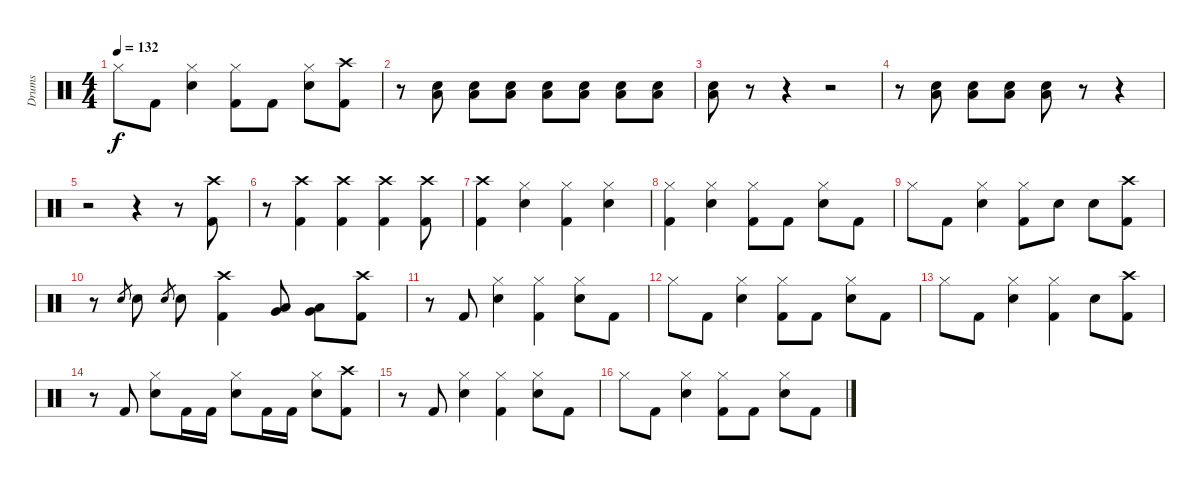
\track ("Drums" "Drums") {instrument percussion}
\staff {score}
\articulation defaults
\ts (4 4)
\tempo 132
\clef neutral
\ks c "Hi-Hat (closed)".8{dy f} "Kick (hit) 2".8
("Hi-Hat (closed)" "Electric Snare (hit)").4 ("Hi-Hat (closed)" "Kick (hit) 2").8 "Kick (hit) 2".8 ("Hi-Hat (closed)" "Electric Snare (hit)").8 ("Crash high (hit)" "Kick (hit) 2").8 |
r.8 ("Electric Snare (hit)" "Low Tom (hit)").8 ("Electric Snare (hit)" "Low Tom (hit)").8 ("Electric Snare (hit)" "Low Tom (hit)").8 ("Electric Snare (hit)" "Low Tom (hit)").8 ("Electric Snare (hit)" "Low Tom (hit)").8 ("Electric Snare (hit)" "Low Tom (hit)").8 ("Electric Snare (hit)" "Low Tom (hit)").8 |
("Electric Snare (hit)" "Low Tom (hit)").8 r.8 r.4 r.2 |
r.8 ("Electric Snare (hit)" "Low Tom (hit)").8 ("Electric Snare (hit)" "Low Tom (hit)").8 ("Electric Snare (hit)" "Low Tom (hit)").8 ("Electric Snare (hit)" "Low Tom (hit)").8 r.8 r.4 |
r.2 r.4 r.8 ("Crash high (hit)" "Kick (hit) 2").8 |
r.8 ("Crash high (hit)" "Kick (hit) 2").4 ("Crash high (hit)" "Kick (hit) 2").4 ("Crash high (hit)" "Kick (hit) 2").4 ("Crash high (hit)" "Kick (hit) 2").8 |
("Crash high (hit)" "Kick (hit) 2").4 ("Hi-Hat (closed)" "Electric Snare (hit)").4 ("Hi-Hat (closed)" "Kick (hit) 2").4 ("Hi-Hat (closed)" "Electric Snare (hit)").4 |
("Hi-Hat (closed)" "Kick (hit) 2").4 ("Hi-Hat (closed)" "Electric Snare (hit)").4 ("Hi-Hat (closed)" "Kick (hit) 2").8 "Kick (hit) 2".8 ("Hi-Hat (closed)" "Electric Snare (hit)").8 "Kick (hit) 2".8 |
"Hi-Hat (closed)".8 "Kick (hit) 2".8 ("Hi-Hat (closed)" "Electric Snare (hit)").4 ("Hi-Hat (closed)" "Kick (hit) 2").8 "Electric Snare (hit)".8 "Electric Snare (hit)".8 ("Crash high (hit)" "Kick (hit) 2").8 |
r.8 "Electric Snare (hit)".8{gr} "Electric Snare (hit)".8 "Electric Snare (hit)".8{gr} "Electric Snare (hit)".8 ("Crash high (hit)" "Kick (hit) 2").4 ("Low Tom (hit)" "Very Low Tom (hit)").8 ("Low Tom (hit)" "Very Low Tom (hit)").8 ("Crash high (hit)" "Kick (hit) 2").8 |
r.8 "Kick (hit) 2".8 ("Hi-Hat (closed)" "Electric Snare (hit)").4 ("Hi-Hat (closed)" "Kick (hit) 2").4 ("Hi-Hat (closed)" "Electric Snare (hit)").8 "Kick (hit) 2".8 |
"Hi-Hat (closed)".8 "Kick (hit) 2".8 ("Hi-Hat (closed)" "Electric Snare (hit)").4 ("Hi-Hat (closed)" "Kick (hit) 2").8 "Kick (hit) 2".8 ("Hi-Hat (closed)" "Electric Snare (hit)").8 "Kick (hit) 2".8 |
"Hi-Hat (closed)".8 "Kick (hit) 2".8 ("Hi-Hat (closed)" "Electric Snare (hit)").4 ("Hi-Hat (closed)" "Kick (hit) 2").4 "Electric Snare (hit)".8 ("Crash high (hit)" "Kick (hit) 2").8 |
r.8 "Kick (hit) 2".8 ("Hi-Hat (closed)" "Electric Snare (hit)").8 "Kick (hit) 2".16 "Kick (hit) 2".16 ("Hi-Hat (closed)" "Electric Snare (hit)").8 "Kick (hit) 2".16 "Kick (hit) 2".16 ("Hi-Hat (closed)" "Electric Snare (hit)").8 ("Crash high (hit)" "Kick (hit) 2").8 |
r.8 "Kick (hit) 2".8 ("Hi-Hat (closed)" "Electric Snare (hit)").4 ("Hi-Hat (closed)" "Kick (hit) 2").4 ("Hi-Hat (closed)" "Electric Snare (hit)").8 "Kick (hit) 2".8 |
"Hi-Hat (closed)".8 "Kick (hit) 2".8 ("Hi-Hat (closed)" "Electric Snare (hit)").4 ("Hi-Hat (closed)" "Kick (hit) 2").8 "Kick (hit) 2".8 ("Hi-Hat (closed)" "Electric Snare (hit)").8 "Kick (hit) 2".8
